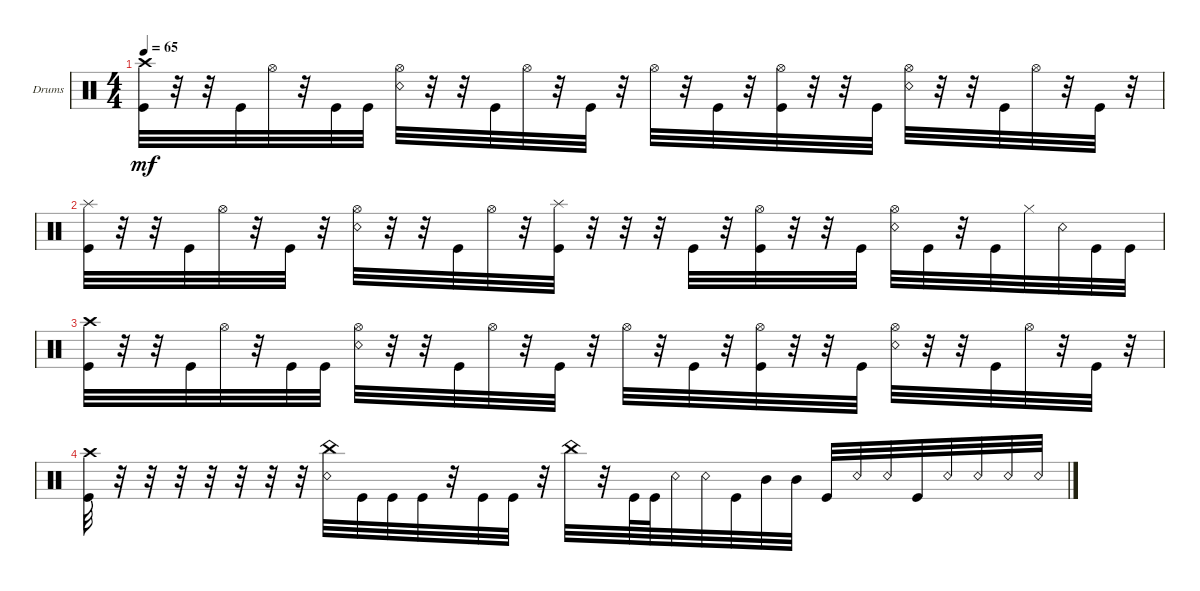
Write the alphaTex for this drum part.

\defaultSystemsLayout 4
\bracketExtendMode groupsimilarinstruments
\firstSystemTrackNameOrientation horizontal
\otherSystemsTrackNameOrientation horizontal
\track ("Drumkit" "Drums") {instrument percussion}
\staff {score}
\articulation defaults
\ts (4 4)
\tempo 65
\clef neutral
\ks c
("Kick (hit)" "Crash high (hit)").32{dy mf} r.32 r.32 "Kick (hit)".32 "Hi-Hat (open)".32 r.32 "Kick (hit)".32 "Kick (hit)".32 ("Snare (rim shot)" "Hi-Hat (open)").32 r.32 r.32 "Kick (hit)".32 "Hi-Hat (open)".32 r.32 "Kick (hit)".32 r.32 "Hi-Hat (open)".32 r.32 "Kick (hit)".32 r.32 ("Kick (hit)" "Hi-Hat (open)").32 r.32 r.32 "Kick (hit)".32 ("Snare (rim shot)" "Hi-Hat (open)").32 r.32 r.32 "Kick (hit)".32 "Hi-Hat (open)".32 r.32 "Kick (hit)".32 r.32 |
("Kick (hit)" "Splash (hit)").32 r.32 r.32 "Kick (hit)".32 "Hi-Hat (open)".32 r.32 "Kick (hit)".32 r.32 ("Snare (rim shot)" "Hi-Hat (open)").32 r.32 r.32 "Kick (hit)".32 "Hi-Hat (open)".32 r.32 ("Kick (hit)" "Splash (hit)").32 r.32 r.32 r.32 "Kick (hit)".32 r.32 ("Kick (hit)" "Hi-Hat (open)").32 r.32 r.32 "Kick (hit)".32 ("Snare (rim shot)" "Hi-Hat (open)").32 "Kick (hit)".32 r.32 "Kick (hit)".32 "Hi-Hat (closed)".32 "Snare (rim shot)".32 "Kick (hit)".32 "Kick (hit)".32 |
("Kick (hit)" "Crash high (hit)").32 r.32 r.32 "Kick (hit)".32 "Hi-Hat (open)".32 r.32 "Kick (hit)".32 "Kick (hit)".32 ("Snare (rim shot)" "Hi-Hat (open)").32 r.32 r.32 "Kick (hit)".32 "Hi-Hat (open)".32 r.32 "Kick (hit)".32 r.32 "Hi-Hat (open)".32 r.32 "Kick (hit)".32 r.32 ("Kick (hit)" "Hi-Hat (open)").32 r.32 r.32 "Kick (hit)".32 ("Snare (rim shot)" "Hi-Hat (open)").32 r.32 r.32 "Kick (hit)".32 "Hi-Hat (open)".32 r.32 "Kick (hit)".32 r.32 |
("Kick (hit)" "Crash high (hit)").32 r.32 r.32 r.32 r.32 r.32 r.32 r.32 ("Snare (rim shot)" "China (hit)").32 "Kick (hit)".32 "Kick (hit)".32 "Kick (hit)".32 r.32 "Kick (hit)".32 "Kick (hit)".32 r.32 "China (hit)".32 r.32 "Kick (hit)".64 "Kick (hit)".64 "Snare (rim shot)".32 "Snare (rim shot)".32 "Kick (hit)".32 "Mid Tom (hit)".32 "Mid Tom (hit)".32 "Kick (hit)".32 "Snare (rim shot)".32 "Snare (rim shot)".32 "Kick (hit)".32 "Snare (rim shot)".32 "Snare (rim shot)".32 "Snare (rim shot)".32 "Snare (rim shot)".32
